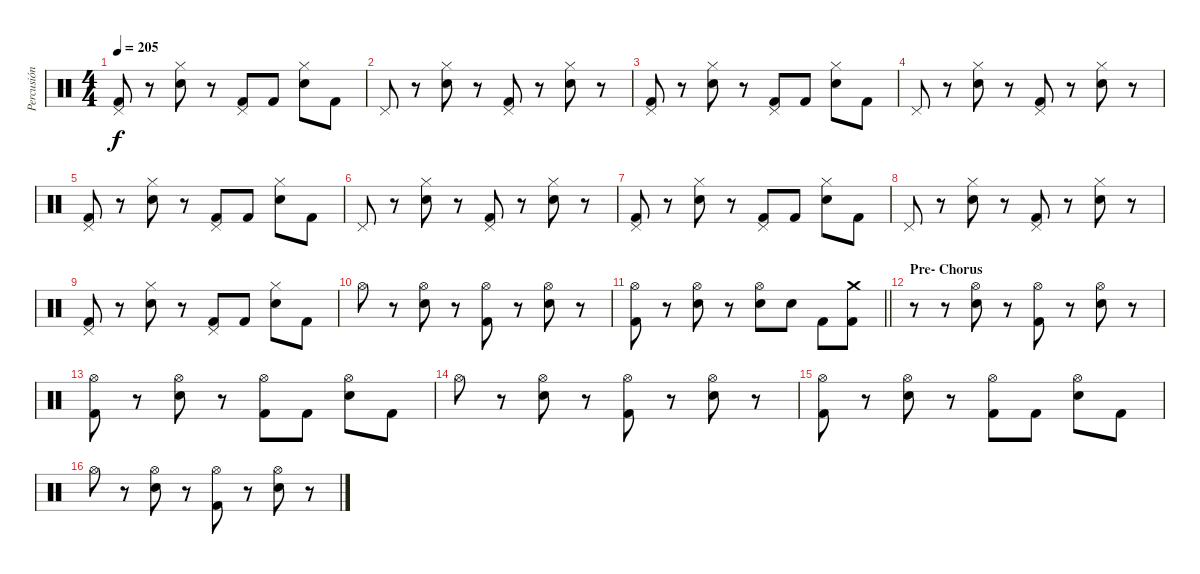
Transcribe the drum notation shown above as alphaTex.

\track ("Percusión" "Percusión") {instrument percussion}
\staff {score}
\articulation defaults
\ts (4 4)
\tempo 205
\clef neutral
\ks c
("Pedal Hi-Hat (hit)" "Kick (hit) 2").8{dy f} r.8 ("Hi-Hat (closed)" "Electric Snare (hit)").8 r.8 ("Pedal Hi-Hat (hit)" "Kick (hit) 2").8 "Kick (hit) 2".8 ("Hi-Hat (closed)" "Electric Snare (hit)").8 "Kick (hit) 2".8 |
"Pedal Hi-Hat (hit)".8 r.8 ("Hi-Hat (closed)" "Electric Snare (hit)").8 r.8 ("Pedal Hi-Hat (hit)" "Kick (hit) 2").8 r.8 ("Hi-Hat (closed)" "Electric Snare (hit)").8 r.8 |
("Pedal Hi-Hat (hit)" "Kick (hit) 2").8 r.8 ("Hi-Hat (closed)" "Electric Snare (hit)").8 r.8 ("Pedal Hi-Hat (hit)" "Kick (hit) 2").8 "Kick (hit) 2".8 ("Hi-Hat (closed)" "Electric Snare (hit)").8 "Kick (hit) 2".8 |
"Pedal Hi-Hat (hit)".8 r.8 ("Hi-Hat (closed)" "Electric Snare (hit)").8 r.8 ("Pedal Hi-Hat (hit)" "Kick (hit) 2").8 r.8 ("Hi-Hat (closed)" "Electric Snare (hit)").8 r.8 |
("Pedal Hi-Hat (hit)" "Kick (hit) 2").8 r.8 ("Hi-Hat (closed)" "Electric Snare (hit)").8 r.8 ("Pedal Hi-Hat (hit)" "Kick (hit) 2").8 "Kick (hit) 2".8 ("Hi-Hat (closed)" "Electric Snare (hit)").8 "Kick (hit) 2".8 |
"Pedal Hi-Hat (hit)".8 r.8 ("Hi-Hat (closed)" "Electric Snare (hit)").8 r.8 ("Pedal Hi-Hat (hit)" "Kick (hit) 2").8 r.8 ("Hi-Hat (closed)" "Electric Snare (hit)").8 r.8 |
("Pedal Hi-Hat (hit)" "Kick (hit) 2").8 r.8 ("Hi-Hat (closed)" "Electric Snare (hit)").8 r.8 ("Pedal Hi-Hat (hit)" "Kick (hit) 2").8 "Kick (hit) 2".8 ("Hi-Hat (closed)" "Electric Snare (hit)").8 "Kick (hit) 2".8 |
"Pedal Hi-Hat (hit)".8 r.8 ("Hi-Hat (closed)" "Electric Snare (hit)").8 r.8 ("Pedal Hi-Hat (hit)" "Kick (hit) 2").8 r.8 ("Hi-Hat (closed)" "Electric Snare (hit)").8 r.8 |
("Pedal Hi-Hat (hit)" "Kick (hit) 2").8 r.8 ("Hi-Hat (closed)" "Electric Snare (hit)").8 r.8 ("Pedal Hi-Hat (hit)" "Kick (hit) 2").8 "Kick (hit) 2".8 ("Hi-Hat (closed)" "Electric Snare (hit)").8 "Kick (hit) 2".8 |
"Hi-Hat (open)".8 r.8 ("Hi-Hat (open)" "Electric Snare (hit)").8 r.8 ("Hi-Hat (open)" "Kick (hit) 2").8 r.8 ("Hi-Hat (open)" "Electric Snare (hit)").8 r.8 |
\barLineRight lightlight
("Hi-Hat (open)" "Kick (hit) 2").8 r.8 ("Hi-Hat (open)" "Electric Snare (hit)").8 r.8 ("Hi-Hat (open)" "Electric Snare (hit)").8 "Electric Snare (hit)".8 "Kick (hit) 2".8 ("Crash medium (hit)" "Kick (hit) 2").8 |
\section ("" "Pre- Chorus")
r.8 r.8 ("Hi-Hat (open)" "Electric Snare (hit)").8 r.8 ("Hi-Hat (open)" "Kick (hit) 2").8 r.8 ("Hi-Hat (open)" "Electric Snare (hit)").8 r.8 |
("Hi-Hat (open)" "Kick (hit) 2").8 r.8 ("Hi-Hat (open)" "Electric Snare (hit)").8 r.8 ("Hi-Hat (open)" "Kick (hit) 2").8 "Kick (hit) 2".8 ("Hi-Hat (open)" "Electric Snare (hit)").8 "Kick (hit) 2".8 |
"Hi-Hat (open)".8 r.8 ("Hi-Hat (open)" "Electric Snare (hit)").8 r.8 ("Hi-Hat (open)" "Kick (hit) 2").8 r.8 ("Hi-Hat (open)" "Electric Snare (hit)").8 r.8 |
("Hi-Hat (open)" "Kick (hit) 2").8 r.8 ("Hi-Hat (open)" "Electric Snare (hit)").8 r.8 ("Hi-Hat (open)" "Kick (hit) 2").8 "Kick (hit) 2".8 ("Hi-Hat (open)" "Electric Snare (hit)").8 "Kick (hit) 2".8 |
"Hi-Hat (open)".8 r.8 ("Hi-Hat (open)" "Electric Snare (hit)").8 r.8 ("Hi-Hat (open)" "Kick (hit) 2").8 r.8 ("Hi-Hat (open)" "Electric Snare (hit)").8 r.8
